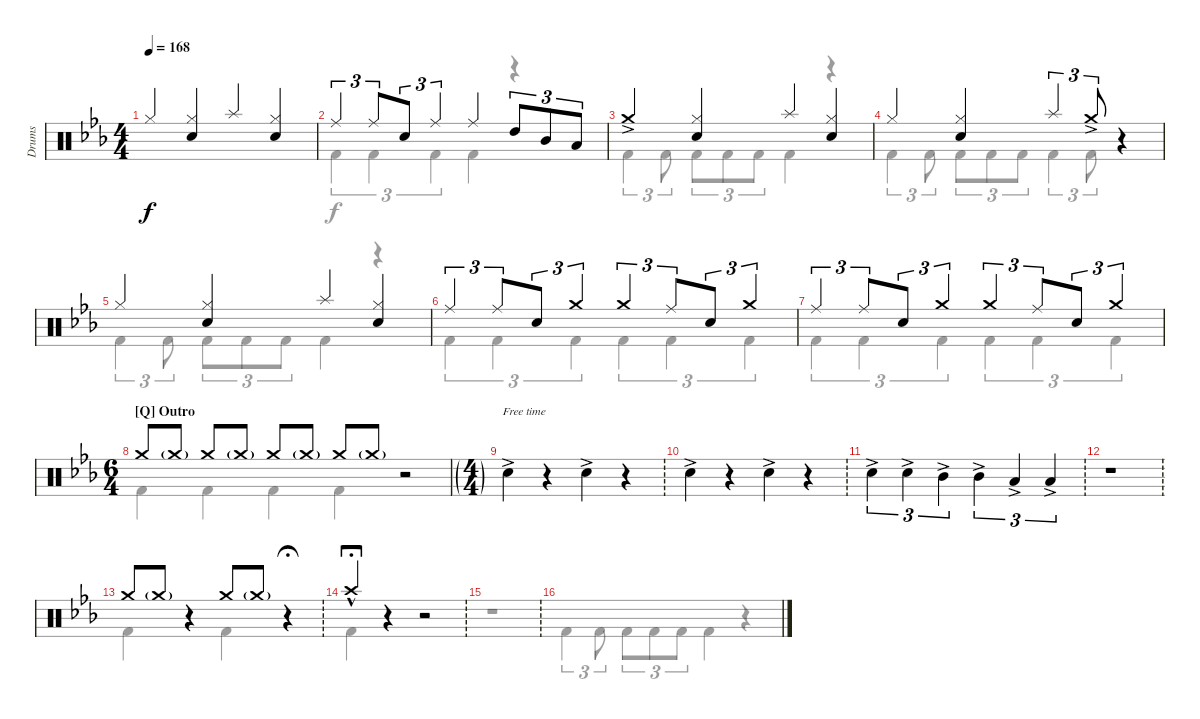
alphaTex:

\defaultSystemsLayout 4
\bracketExtendMode groupsimilarinstruments
\otherSystemsTrackNameOrientation horizontal
\track ("Drums" "Drums") {instrument percussion}
\staff {score}
\articulation defaults
\voice
\ts (4 4)
\tempo 168
\clef neutral
\ks eb "Hi-Hat (closed)"{acc forcenatural}.4{dy f beam Up}
("Hi-Hat (closed)"{acc forcenatural} "Snare (hit) 2"{acc forcenatural}).4{beam Up} "Splash (hit)"{acc forcenatural}.4{beam Up} ("Hi-Hat (closed)"{acc forcenatural} "Snare (hit) 2"{acc forcenatural}).4{beam Up} |
"Ride (middle)"{acc forcenatural}.4{tu (3 2) beam Up} "Ride (middle)"{acc forcenatural}.8{tu (3 2) beam Up beam merge} "Snare (hit) 2"{acc forcenatural}.8{tu (3 2) beam Up} "Ride (middle)"{acc forcenatural}.4{tu (3 2) beam Up} "Ride (middle)"{acc forcenatural}.4{beam Up} "High Tom (hit)"{acc forcenatural}.8{tu (3 2) beam Up} "Mid Tom (hit)"{acc forcenatural}.8{tu (3 2) beam Up} "Low Tom (hit)"{acc forcenatural}.8{tu (3 2) beam Up} |
"Crash medium (hit)"{ac acc forcenatural}.4{beam Up} ("Hi-Hat (closed)"{acc forcenatural} "Snare (hit) 2"{acc forcenatural}).4{beam Up} "Splash (hit)"{acc forcenatural}.4{beam Up} ("Hi-Hat (closed)"{acc forcenatural} "Snare (hit) 2"{acc forcenatural}).4{beam Up} |
"Hi-Hat (closed)"{acc forcenatural}.4{beam Up} ("Hi-Hat (closed)"{acc forcenatural} "Snare (hit) 2"{acc forcenatural}).4{beam Up} "Splash (hit)"{acc forcenatural}.4{tu (3 2) beam Up} "Crash medium (hit)"{ac acc forcenatural}.8{tu (3 2) beam Up} r.4{beam Up} |
"Hi-Hat (closed)"{acc forcenatural}.4{beam Up} ("Hi-Hat (closed)"{acc forcenatural} "Snare (hit) 2"{acc forcenatural}).4{beam Up} "Splash (hit)"{acc forcenatural}.4{beam Up} ("Hi-Hat (closed)"{acc forcenatural} "Snare (hit) 2"{acc forcenatural}).4{beam Up} |
"Ride (middle)"{acc forcenatural}.4{tu (3 2) beam Up} "Ride (middle)"{acc forcenatural}.8{tu (3 2) beam Up beam merge} "Snare (hit) 2"{acc forcenatural}.8{tu (3 2) beam Up} "Crash medium (hit)"{acc forcenatural}.4{tu (3 2) beam Up} "Crash medium (hit)"{acc forcenatural}.4{tu (3 2) beam Up} "Ride (middle)"{acc forcenatural}.8{tu (3 2) beam Up beam merge} "Snare (hit) 2"{acc forcenatural}.8{tu (3 2) beam Up} "Crash medium (hit)"{acc forcenatural}.4{tu (3 2) beam Up} |
"Ride (middle)"{acc forcenatural}.4{tu (3 2) beam Up} "Ride (middle)"{acc forcenatural}.8{tu (3 2) beam Up beam merge} "Snare (hit) 2"{acc forcenatural}.8{tu (3 2) beam Up} "Crash medium (hit)"{acc forcenatural}.4{tu (3 2) beam Up} "Crash medium (hit)"{acc forcenatural}.4{tu (3 2) beam Up} "Ride (middle)"{acc forcenatural}.8{tu (3 2) beam Up beam merge} "Snare (hit) 2"{acc forcenatural}.8{tu (3 2) beam Up} "Crash medium (hit)"{acc forcenatural}.4{tu (3 2) beam Up} |
\ts (6 4)
\section ("Q" "Outro")
"Crash medium (hit)"{acc forcenatural}.8{beam Up} "Crash medium (hit)"{g acc forcenatural}.8{beam Up beam split} "Crash medium (hit)"{acc forcenatural}.8{beam Up} "Crash medium (hit)"{g acc forcenatural}.8{beam Up beam split} "Crash medium (hit)"{acc forcenatural}.8{beam Up} "Crash medium (hit)"{g acc forcenatural}.8{beam Up} "Crash medium (hit)"{acc forcenatural}.8{beam Up} "Crash medium (hit)"{g acc forcenatural}.8{beam Up} r.2{beam Up} |
\ts (4 4)
\ft "Snare (hit) 2"{ac acc forcenatural}.4{beam Down}
r.4{beam Down} "Snare (hit) 2"{ac acc forcenatural}.4{beam Down} r.4{beam Down} |
\ft "Snare (hit) 2"{ac acc forcenatural}.4{beam Down}
r.4{beam Down} "Snare (hit) 2"{ac acc forcenatural}.4{beam Down} r.4{beam Down} |
\ft "Snare (hit) 2"{ac acc forcenatural}.4{tu (3 2) beam Down} "Snare (hit) 2"{ac acc forcenatural}.4{tu (3 2) beam Down} "Mid Tom (hit)"{ac acc forcenatural}.4{tu (3 2) beam Down} "Mid Tom (hit)"{ac acc forcenatural}.4{tu (3 2) beam Down} "Low Tom (hit)"{ac acc forcenatural}.4{tu (3 2) beam Up} "Low Tom (hit)"{ac acc forcenatural}.4{tu (3 2) beam Up}
|
\ft
r.1{beam Down} |
\ft "Crash medium (hit)"{acc forcenatural}.8{beam Up} "Crash medium (hit)"{g acc forcenatural}.8{beam Up beam split}
r.4{beam Up} "Crash medium (hit)"{acc forcenatural}.8{beam Up} "Crash medium (hit)"{g acc forcenatural}.8{beam Up beam split} r.4{fermata (medium 0.5) beam Up} |
\ft "Crash high (hit)"{hac acc forcenatural}.4{fermata (long 1) beam Up}
r.4{beam Up} r.2{beam Up} |
\ft
|
\ft
\voice
\clef neutral
\ottava regular
\simile none
\ks eb "Kick (hit) 2"{acc forcenatural}.4{tu (3 2) dy f beam Down} "Kick (hit) 2"{acc forcenatural}.8{tu (3 2) beam Down} "Kick (hit) 2"{acc forcenatural}.8{tu (3 2) beam Down} "Kick (hit) 2"{acc forcenatural}.8{tu (3 2) beam Down} "Kick (hit) 2"{acc forcenatural}.8{tu (3 2) beam Down} "Kick (hit) 2"{acc forcenatural}.4{beam Down}
r.4{beam Down} |
"Kick (hit) 2"{acc forcenatural}.4{tu (3 2) beam Down} "Kick (hit) 2"{acc forcenatural}.4{tu (3 2) beam Down} "Kick (hit) 2"{acc forcenatural}.4{tu (3 2) beam Down} "Kick (hit) 2"{acc forcenatural}.4{beam Down} r.4{beam Down} |
"Kick (hit) 2"{acc forcenatural}.4{tu (3 2) beam Down} "Kick (hit) 2"{acc forcenatural}.8{tu (3 2) beam Down} "Kick (hit) 2"{acc forcenatural}.8{tu (3 2) beam Down} "Kick (hit) 2"{acc forcenatural}.8{tu (3 2) beam Down} "Kick (hit) 2"{acc forcenatural}.8{tu (3 2) beam Down} "Kick (hit) 2"{acc forcenatural}.4{beam Down} r.4{beam Down} |
"Kick (hit) 2"{acc forcenatural}.4{tu (3 2) beam Down} "Kick (hit) 2"{acc forcenatural}.8{tu (3 2) beam Down} "Kick (hit) 2"{acc forcenatural}.8{tu (3 2) beam Down} "Kick (hit) 2"{acc forcenatural}.8{tu (3 2) beam Down} "Kick (hit) 2"{acc forcenatural}.8{tu (3 2) beam Down} "Kick (hit) 2"{acc forcenatural}.4{tu (3 2) beam Down} "Kick (hit) 2"{acc forcenatural}.8{tu (3 2) beam Down} r.4{beam Down} |
"Kick (hit) 2"{acc forcenatural}.4{tu (3 2) beam Down} "Kick (hit) 2"{acc forcenatural}.8{tu (3 2) beam Down} "Kick (hit) 2"{acc forcenatural}.8{tu (3 2) beam Down} "Kick (hit) 2"{acc forcenatural}.8{tu (3 2) beam Down} "Kick (hit) 2"{acc forcenatural}.8{tu (3 2) beam Down} "Kick (hit) 2"{acc forcenatural}.4{beam Down} r.4{beam Down} |
"Kick (hit) 2"{acc forcenatural}.4{tu (3 2) beam Down} "Kick (hit) 2"{acc forcenatural}.4{tu (3 2) beam Down} "Kick (hit) 2"{acc forcenatural}.4{tu (3 2) beam Down} "Kick (hit) 2"{acc forcenatural}.4{tu (3 2) beam Down} "Kick (hit) 2"{acc forcenatural}.4{tu (3 2) beam Down} "Kick (hit) 2"{acc forcenatural}.4{tu (3 2) beam Down} |
"Kick (hit) 2"{acc forcenatural}.4{tu (3 2) beam Down} "Kick (hit) 2"{acc forcenatural}.4{tu (3 2) beam Down} "Kick (hit) 2"{acc forcenatural}.4{tu (3 2) beam Down} "Kick (hit) 2"{acc forcenatural}.4{tu (3 2) beam Down} "Kick (hit) 2"{acc forcenatural}.4{tu (3 2) beam Down} "Kick (hit) 2"{acc forcenatural}.4{tu (3 2) beam Down} |
"Kick (hit) 2"{acc forcenatural}.4{beam Down} "Kick (hit) 2"{acc forcenatural}.4{beam Down} "Kick (hit) 2"{acc forcenatural}.4{beam Down} "Kick (hit) 2"{acc forcenatural}.4{beam Down} r.2{beam Down} |
|
|
|
|
"Kick (hit) 2"{acc forcenatural}.4{beam Down} r.4{beam Down} "Kick (hit) 2"{acc forcenatural}.4{beam Down} r.4{fermata (medium 0.5) beam Down} |
"Kick (hit) 2"{acc forcenatural}.4{fermata (long 1) beam Down} r.4{beam Down} r.2{beam Down} |
r.1{beam Down} |
